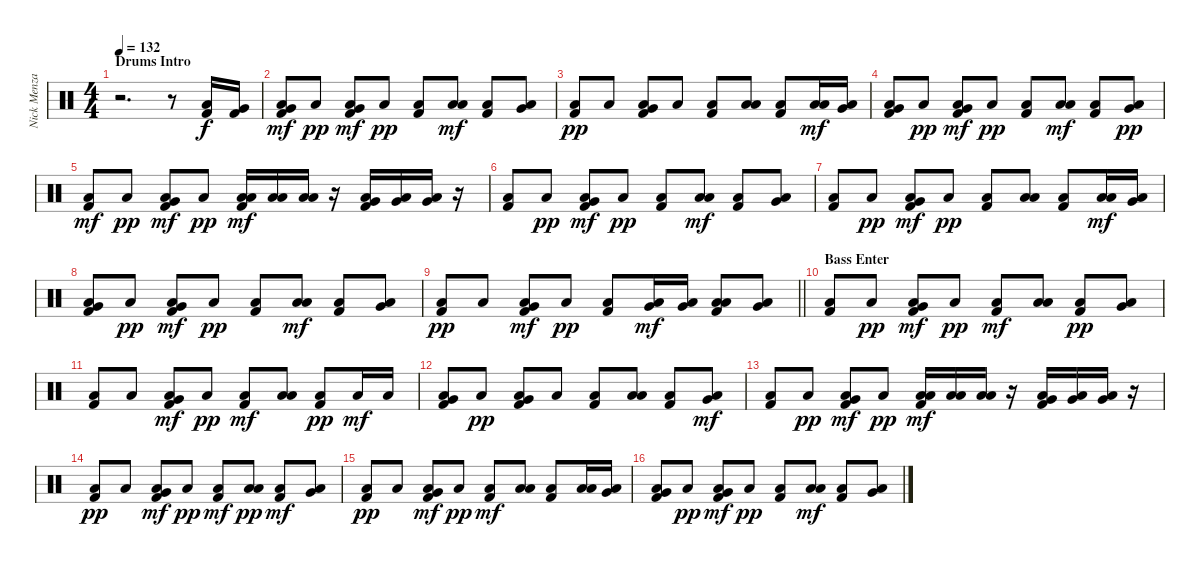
\track ("Nick Menza (Drums)" "Nick Menza") {instrument percussion}
\staff {score}
\articulation defaults
\ts (4 4)
\section ("" "Drums Intro")
\tempo 132
\clef neutral
\ks c
r.2{d dy f} r.8 ("Low Tom (hit)" "Kick (hit) 2").16 ("Very Low Tom (hit)" "Kick (hit) 2").16 |
("Very Low Tom (hit)" "Low Floor Tom (hit)" "Kick (hit) 2").8{dy mf} "Low Floor Tom (hit)".8{dy pp} ("Very Low Tom (hit)" "Low Floor Tom (hit)" "Kick (hit) 2").8{dy mf} "Low Floor Tom (hit)".8{dy pp} ("Kick (hit) 2" "Low Floor Tom (hit)").8 ("Low Floor Tom (hit)" "Low Tom (hit)").8{dy mf} ("Low Floor Tom (hit)" "Kick (hit) 2").8 ("Low Floor Tom (hit)" "Very Low Tom (hit)").8 |
("Kick (hit) 2" "Low Floor Tom (hit)").8{dy pp} "Low Floor Tom (hit)".8 ("Kick (hit) 2" "Very Low Tom (hit)" "Low Floor Tom (hit)").8 "Low Floor Tom (hit)".8 ("Kick (hit) 2" "Low Floor Tom (hit)").8 ("Low Tom (hit)" "Low Floor Tom (hit)").8 ("Kick (hit) 2" "Low Floor Tom (hit)").8 ("Low Tom (hit)" "Low Floor Tom (hit)").16{dy mf} ("Very Low Tom (hit)" "Low Floor Tom (hit)").16 |
("Very Low Tom (hit)" "Low Floor Tom (hit)" "Kick (hit) 2").8 "Low Floor Tom (hit)".8{dy pp} ("Low Floor Tom (hit)" "Kick (hit) 2" "Very Low Tom (hit)").8{dy mf} "Low Floor Tom (hit)".8{dy pp} ("Kick (hit) 2" "Low Floor Tom (hit)").8 ("Low Floor Tom (hit)" "Low Tom (hit)").8{dy mf} ("Low Floor Tom (hit)" "Kick (hit) 2").8 ("Very Low Tom (hit)" "Low Floor Tom (hit)").8{dy pp} |
("Low Floor Tom (hit)" "Kick (hit) 2").8{dy mf} "Low Floor Tom (hit)".8{dy pp} ("Kick (hit) 2" "Low Floor Tom (hit)" "Very Low Tom (hit)").8{dy mf} "Low Floor Tom (hit)".8{dy pp} ("Low Tom (hit)" "Low Floor Tom (hit)" "Kick (hit) 2").16{dy mf} ("Low Floor Tom (hit)" "Low Tom (hit)").16 ("Low Tom (hit)" "Low Floor Tom (hit)").16 r.16 ("Very Low Tom (hit)" "Low Floor Tom (hit)" "Kick (hit) 2").16 ("Low Floor Tom (hit)" "Very Low Tom (hit)").16 ("Low Floor Tom (hit)" "Very Low Tom (hit)").16 r.16 |
("Low Floor Tom (hit)" "Kick (hit) 2").8 "Low Floor Tom (hit)".8{dy pp} ("Very Low Tom (hit)" "Low Floor Tom (hit)" "Kick (hit) 2").8{dy mf} "Low Floor Tom (hit)".8{dy pp} ("Kick (hit) 2" "Low Floor Tom (hit)").8 ("Low Floor Tom (hit)" "Low Tom (hit)").8{dy mf} ("Low Floor Tom (hit)" "Kick (hit) 2").8 ("Low Floor Tom (hit)" "Very Low Tom (hit)").8 |
("Low Floor Tom (hit)" "Kick (hit) 2").8 "Low Floor Tom (hit)".8{dy pp} ("Kick (hit) 2" "Low Floor Tom (hit)" "Very Low Tom (hit)").8{dy mf} "Low Floor Tom (hit)".8{dy pp} ("Kick (hit) 2" "Low Floor Tom (hit)").8 ("Low Tom (hit)" "Low Floor Tom (hit)").8 ("Kick (hit) 2" "Low Floor Tom (hit)").8 ("Low Tom (hit)" "Low Floor Tom (hit)").16{dy mf} ("Very Low Tom (hit)" "Low Floor Tom (hit)").16 |
("Low Floor Tom (hit)" "Very Low Tom (hit)" "Kick (hit) 2").8 "Low Floor Tom (hit)".8{dy pp} ("Very Low Tom (hit)" "Low Floor Tom (hit)" "Kick (hit) 2").8{dy mf} "Low Floor Tom (hit)".8{dy pp} ("Kick (hit) 2" "Low Floor Tom (hit)").8 ("Low Floor Tom (hit)" "Low Tom (hit)").8{dy mf} ("Low Floor Tom (hit)" "Kick (hit) 2").8 ("Low Floor Tom (hit)" "Very Low Tom (hit)").8 |
\barLineRight lightlight
("Kick (hit) 2" "Low Floor Tom (hit)").8{dy pp} "Low Floor Tom (hit)".8 ("Very Low Tom (hit)" "Low Floor Tom (hit)" "Kick (hit) 2").8{dy mf} "Low Floor Tom (hit)".8{dy pp} ("Kick (hit) 2" "Low Floor Tom (hit)").8 ("Very Low Tom (hit)" "Low Floor Tom (hit)").16{dy mf} ("Very Low Tom (hit)" "Low Floor Tom (hit)").16 ("Low Floor Tom (hit)" "Low Tom (hit)" "Kick (hit) 2").8 ("Very Low Tom (hit)" "Low Floor Tom (hit)").8 |
\section ("" "Bass Enter")
("Low Floor Tom (hit)" "Kick (hit) 2").8 "Low Floor Tom (hit)".8{dy pp} ("Very Low Tom (hit)" "Low Floor Tom (hit)" "Kick (hit) 2").8{dy mf} "Low Floor Tom (hit)".8{dy pp} ("Low Floor Tom (hit)" "Kick (hit) 2").8{dy mf} ("Low Floor Tom (hit)" "Low Tom (hit)").8 ("Kick (hit) 2" "Low Floor Tom (hit)").8{dy pp} ("Very Low Tom (hit)" "Low Floor Tom (hit)").8 |
("Kick (hit) 2" "Low Floor Tom (hit)").8 "Low Floor Tom (hit)".8 ("Low Floor Tom (hit)" "Kick (hit) 2" "Very Low Tom (hit)").8{dy mf} "Low Floor Tom (hit)".8{dy pp} ("Low Floor Tom (hit)" "Kick (hit) 2").8{dy mf} ("Low Floor Tom (hit)" "Low Tom (hit)").8 ("Kick (hit) 2" "Low Floor Tom (hit)").8{dy pp} "Low Floor Tom (hit)".16{dy mf} "Low Floor Tom (hit)".16 |
("Very Low Tom (hit)" "Low Floor Tom (hit)" "Kick (hit) 2").8 "Low Floor Tom (hit)".8{dy pp} ("Kick (hit) 2" "Very Low Tom (hit)" "Low Floor Tom (hit)").8 "Low Floor Tom (hit)".8 ("Kick (hit) 2" "Low Floor Tom (hit)").8 ("Low Tom (hit)" "Low Floor Tom (hit)").8 ("Kick (hit) 2" "Low Floor Tom (hit)").8 ("Low Floor Tom (hit)" "Very Low Tom (hit)").8{dy mf} |
("Low Floor Tom (hit)" "Kick (hit) 2").8 "Low Floor Tom (hit)".8{dy pp} ("Kick (hit) 2" "Low Floor Tom (hit)" "Very Low Tom (hit)").8{dy mf} "Low Floor Tom (hit)".8{dy pp} ("Low Floor Tom (hit)" "Low Tom (hit)" "Kick (hit) 2").16{dy mf} ("Low Floor Tom (hit)" "Low Tom (hit)").16 ("Low Floor Tom (hit)" "Low Tom (hit)").16 r.16 ("Kick (hit) 2" "Very Low Tom (hit)" "Low Floor Tom (hit)").16 ("Very Low Tom (hit)" "Low Floor Tom (hit)").16 ("Low Floor Tom (hit)" "Very Low Tom (hit)").16 r.16 |
("Kick (hit) 2" "Low Floor Tom (hit)").8{dy pp} "Low Floor Tom (hit)".8 ("Kick (hit) 2" "Low Floor Tom (hit)" "Very Low Tom (hit)").8{dy mf} "Low Floor Tom (hit)".8{dy pp} ("Low Floor Tom (hit)" "Kick (hit) 2").8{dy mf} ("Low Tom (hit)" "Low Floor Tom (hit)").8{dy pp} ("Low Floor Tom (hit)" "Kick (hit) 2").8{dy mf} ("Low Floor Tom (hit)" "Very Low Tom (hit)").8 |
("Kick (hit) 2" "Low Floor Tom (hit)").8{dy pp} "Low Floor Tom (hit)".8 ("Low Floor Tom (hit)" "Kick (hit) 2" "Very Low Tom (hit)").8{dy mf} "Low Floor Tom (hit)".8{dy pp} ("Low Floor Tom (hit)" "Kick (hit) 2").8{dy mf} ("Low Floor Tom (hit)" "Low Tom (hit)").8 ("Low Floor Tom (hit)" "Kick (hit) 2").8 ("Low Floor Tom (hit)" "Low Tom (hit)").16 ("Low Floor Tom (hit)" "Very Low Tom (hit)").16 |
("Very Low Tom (hit)" "Kick (hit) 2" "Low Floor Tom (hit)").8 "Low Floor Tom (hit)".8{dy pp} ("Very Low Tom (hit)" "Low Floor Tom (hit)" "Kick (hit) 2").8{dy mf} "Low Floor Tom (hit)".8{dy pp} ("Kick (hit) 2" "Low Floor Tom (hit)").8 ("Low Floor Tom (hit)" "Low Tom (hit)").8{dy mf} ("Low Floor Tom (hit)" "Kick (hit) 2").8 ("Low Floor Tom (hit)" "Very Low Tom (hit)").8
